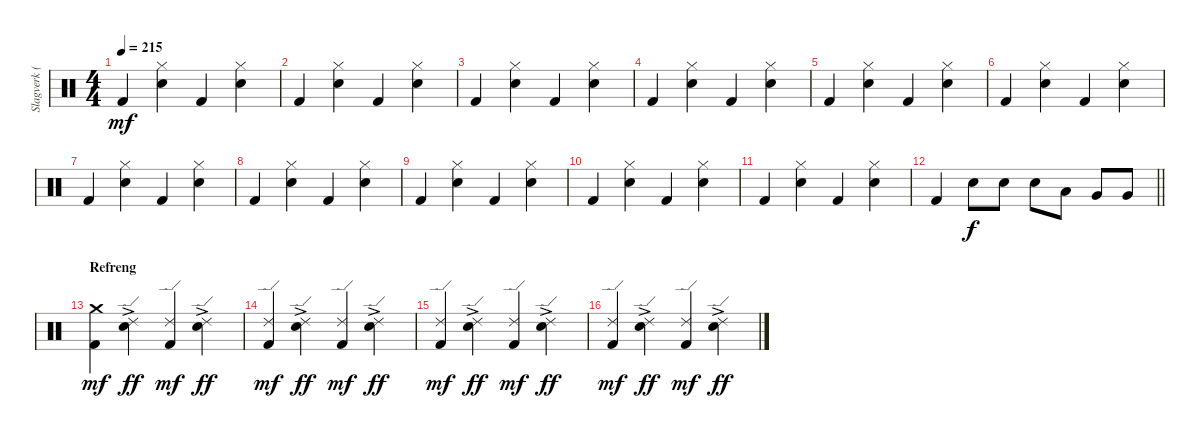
\track ("Slagverk (Jan Kristiansen)" "Slagverk (") {instrument percussion}
\staff {score}
\articulation defaults
\ts (4 4)
\tempo 215
\clef neutral
\ks c "Kick (hit) 2".4{dy mf}
("Hi-Hat (closed)" "Snare (hit) 2").4 "Kick (hit) 2".4 ("Hi-Hat (closed)" "Snare (hit) 2").4 |
"Kick (hit) 2".4 ("Hi-Hat (closed)" "Snare (hit) 2").4 "Kick (hit) 2".4 ("Hi-Hat (closed)" "Snare (hit) 2").4 |
"Kick (hit) 2".4 ("Hi-Hat (closed)" "Snare (hit) 2").4 "Kick (hit) 2".4 ("Hi-Hat (closed)" "Snare (hit) 2").4 |
"Kick (hit) 2".4 ("Hi-Hat (closed)" "Snare (hit) 2").4 "Kick (hit) 2".4 ("Hi-Hat (closed)" "Snare (hit) 2").4 |
"Kick (hit) 2".4 ("Hi-Hat (closed)" "Snare (hit) 2").4 "Kick (hit) 2".4 ("Hi-Hat (closed)" "Snare (hit) 2").4 |
"Kick (hit) 2".4 ("Hi-Hat (closed)" "Snare (hit) 2").4 "Kick (hit) 2".4 ("Hi-Hat (closed)" "Snare (hit) 2").4 |
"Kick (hit) 2".4 ("Hi-Hat (closed)" "Snare (hit) 2").4 "Kick (hit) 2".4 ("Hi-Hat (closed)" "Snare (hit) 2").4 |
"Kick (hit) 2".4 ("Hi-Hat (closed)" "Snare (hit) 2").4 "Kick (hit) 2".4 ("Hi-Hat (closed)" "Snare (hit) 2").4 |
"Kick (hit) 2".4 ("Hi-Hat (closed)" "Snare (hit) 2").4 "Kick (hit) 2".4 ("Hi-Hat (closed)" "Snare (hit) 2").4 |
"Kick (hit) 2".4 ("Hi-Hat (closed)" "Snare (hit) 2").4 "Kick (hit) 2".4 ("Hi-Hat (closed)" "Snare (hit) 2").4 |
"Kick (hit) 2".4 ("Hi-Hat (closed)" "Snare (hit) 2").4 "Kick (hit) 2".4 ("Hi-Hat (closed)" "Snare (hit) 2").4 |
\barLineRight lightlight "Kick (hit) 2".4 "Snare (hit) 2".8{dy f} "Snare (hit) 2".8 "Snare (hit) 2".8 "Low Tom (hit)".8 "Very Low Tom (hit)".8 "Very Low Tom (hit)".8
|
\section ("" "Refreng")
("Crash medium (hit)" "Kick (hit) 2").4{dy mf} ("Ride (edge) 2"{ac} "Snare (hit) 2").4{dy ff} ("Ride (edge) 2" "Kick (hit) 2").4{dy mf} ("Ride (edge) 2"{ac} "Snare (hit) 2").4{dy ff} |
("Ride (edge) 2" "Kick (hit) 2").4{dy mf} ("Ride (edge) 2"{ac} "Snare (hit) 2").4{dy ff} ("Ride (edge) 2" "Kick (hit) 2").4{dy mf} ("Ride (edge) 2"{ac} "Snare (hit) 2").4{dy ff} |
("Ride (edge) 2" "Kick (hit) 2").4{dy mf} ("Ride (edge) 2"{ac} "Snare (hit) 2").4{dy ff} ("Ride (edge) 2" "Kick (hit) 2").4{dy mf} ("Ride (edge) 2"{ac} "Snare (hit) 2").4{dy ff} |
("Ride (edge) 2" "Kick (hit) 2").4{dy mf} ("Ride (edge) 2"{ac} "Snare (hit) 2").4{dy ff} ("Ride (edge) 2" "Kick (hit) 2").4{dy mf} ("Ride (edge) 2"{ac} "Snare (hit) 2").4{dy ff}
